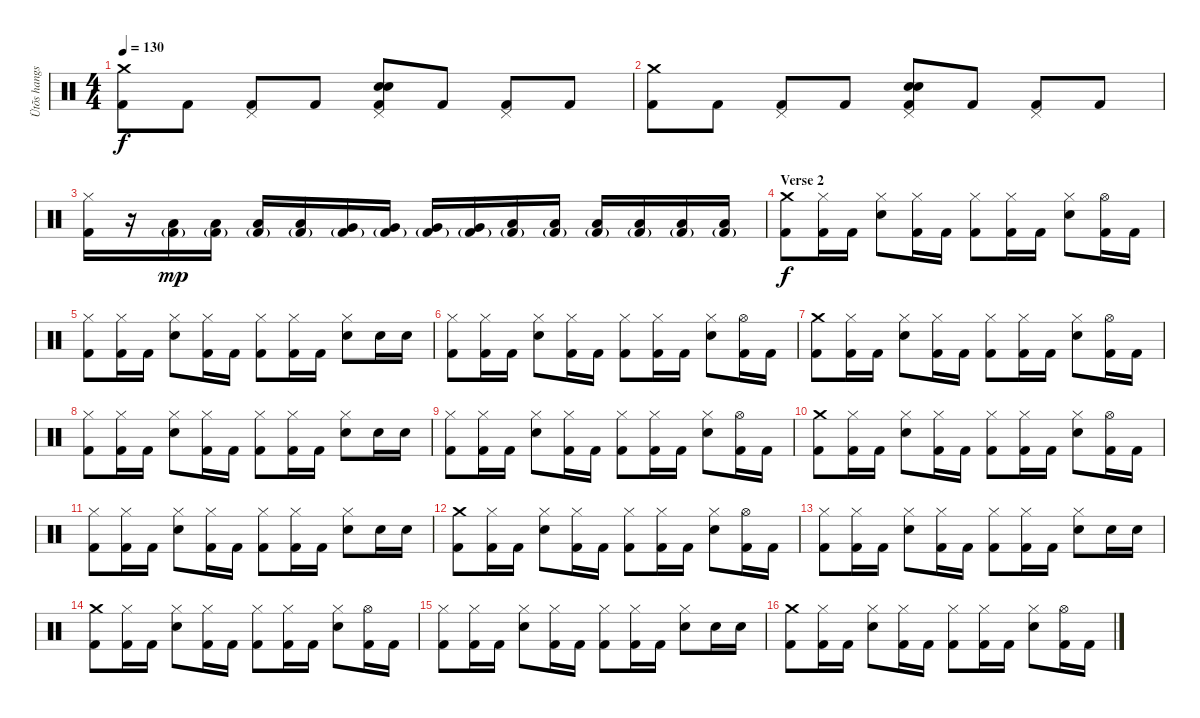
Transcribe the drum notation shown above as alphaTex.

\track ("Ütõs hangszer" "Ütõs hangs") {instrument percussion}
\staff {score}
\articulation defaults
\ts (4 4)
\tempo 130
\clef neutral
\ks c
("Crash medium (hit)" "Kick (hit) 2").8{dy f} "Kick (hit) 2".8 ("Pedal Hi-Hat (hit)" "Kick (hit) 2").8 "Kick (hit) 2".8 ("Pedal Hi-Hat (hit)" "Snare (hit) 2" "Electric Snare (hit)" "Kick (hit) 2").8 "Kick (hit) 2".8 ("Pedal Hi-Hat (hit)" "Kick (hit) 2").8 "Kick (hit) 2".8 |
("Crash medium (hit)" "Kick (hit) 2").8 "Kick (hit) 2".8 ("Pedal Hi-Hat (hit)" "Kick (hit) 2").8 "Kick (hit) 2".8 ("Pedal Hi-Hat (hit)" "Snare (hit) 2" "Electric Snare (hit)" "Kick (hit) 2").8 "Kick (hit) 2".8 ("Pedal Hi-Hat (hit)" "Kick (hit) 2").8 "Kick (hit) 2".8 |
("Hi-Hat (closed)" "Kick (hit) 2").16 r.16 ("Kick (hit) 2"{g} "Low Tom (hit)").16{dy mp} ("Kick (hit) 2"{g} "Low Tom (hit)").16 ("Kick (hit) 2"{g} "Low Tom (hit)").16 ("Kick (hit) 2"{g} "Low Tom (hit)").16 ("Kick (hit) 2"{g} "Very Low Tom (hit)").16 ("Kick (hit) 2"{g} "Very Low Tom (hit)").16 ("Kick (hit) 2"{g} "Very Low Tom (hit)").16 ("Kick (hit) 2"{g} "Very Low Tom (hit)").16 ("Kick (hit) 2"{g} "Low Floor Tom (hit)").16 ("Kick (hit) 2"{g} "Low Floor Tom (hit)").16 ("Kick (hit) 2"{g} "Low Floor Tom (hit)").16 ("Kick (hit) 2"{g} "Low Floor Tom (hit)").16 ("Kick (hit) 2"{g} "Low Floor Tom (hit)").16 ("Kick (hit) 2"{g} "Low Floor Tom (hit)").16 |
\section ("" "Verse 2")
("Crash medium (hit)" "Kick (hit) 2").8{dy f} ("Hi-Hat (closed)" "Kick (hit) 2").16 "Kick (hit) 2".16 ("Hi-Hat (closed)" "Snare (hit) 2").8 ("Hi-Hat (closed)" "Kick (hit) 2").16 "Kick (hit) 2".16 ("Hi-Hat (closed)" "Kick (hit) 2").8 ("Hi-Hat (closed)" "Kick (hit) 2").16 "Kick (hit) 2".16 ("Hi-Hat (closed)" "Snare (hit) 2").8 ("Hi-Hat (open)" "Kick (hit) 2").16 "Kick (hit) 2".16 |
("Hi-Hat (closed)" "Kick (hit) 2").8 ("Hi-Hat (closed)" "Kick (hit) 2").16 "Kick (hit) 2".16 ("Hi-Hat (closed)" "Snare (hit) 2").8 ("Hi-Hat (closed)" "Kick (hit) 2").16 "Kick (hit) 2".16 ("Hi-Hat (closed)" "Kick (hit) 2").8 ("Hi-Hat (closed)" "Kick (hit) 2").16 "Kick (hit) 2".16 ("Hi-Hat (closed)" "Snare (hit) 2").8 "Snare (hit) 2".16 "Snare (hit) 2".16 |
("Hi-Hat (closed)" "Kick (hit) 2").8 ("Hi-Hat (closed)" "Kick (hit) 2").16 "Kick (hit) 2".16 ("Hi-Hat (closed)" "Snare (hit) 2").8 ("Hi-Hat (closed)" "Kick (hit) 2").16 "Kick (hit) 2".16 ("Hi-Hat (closed)" "Kick (hit) 2").8 ("Hi-Hat (closed)" "Kick (hit) 2").16 "Kick (hit) 2".16 ("Hi-Hat (closed)" "Snare (hit) 2").8 ("Hi-Hat (open)" "Kick (hit) 2").16 "Kick (hit) 2".16 |
("Crash medium (hit)" "Kick (hit) 2").8 ("Hi-Hat (closed)" "Kick (hit) 2").16 "Kick (hit) 2".16 ("Hi-Hat (closed)" "Snare (hit) 2").8 ("Hi-Hat (closed)" "Kick (hit) 2").16 "Kick (hit) 2".16 ("Hi-Hat (closed)" "Kick (hit) 2").8 ("Hi-Hat (closed)" "Kick (hit) 2").16 "Kick (hit) 2".16 ("Hi-Hat (closed)" "Snare (hit) 2").8 ("Hi-Hat (open)" "Kick (hit) 2").16 "Kick (hit) 2".16 |
("Hi-Hat (closed)" "Kick (hit) 2").8 ("Hi-Hat (closed)" "Kick (hit) 2").16 "Kick (hit) 2".16 ("Hi-Hat (closed)" "Snare (hit) 2").8 ("Hi-Hat (closed)" "Kick (hit) 2").16 "Kick (hit) 2".16 ("Hi-Hat (closed)" "Kick (hit) 2").8 ("Hi-Hat (closed)" "Kick (hit) 2").16 "Kick (hit) 2".16 ("Hi-Hat (closed)" "Snare (hit) 2").8 "Snare (hit) 2".16 "Snare (hit) 2".16 |
("Hi-Hat (closed)" "Kick (hit) 2").8 ("Hi-Hat (closed)" "Kick (hit) 2").16 "Kick (hit) 2".16 ("Hi-Hat (closed)" "Snare (hit) 2").8 ("Hi-Hat (closed)" "Kick (hit) 2").16 "Kick (hit) 2".16 ("Hi-Hat (closed)" "Kick (hit) 2").8 ("Hi-Hat (closed)" "Kick (hit) 2").16 "Kick (hit) 2".16 ("Hi-Hat (closed)" "Snare (hit) 2").8 ("Hi-Hat (open)" "Kick (hit) 2").16 "Kick (hit) 2".16 |
("Crash medium (hit)" "Kick (hit) 2").8 ("Hi-Hat (closed)" "Kick (hit) 2").16 "Kick (hit) 2".16 ("Hi-Hat (closed)" "Snare (hit) 2").8 ("Hi-Hat (closed)" "Kick (hit) 2").16 "Kick (hit) 2".16 ("Hi-Hat (closed)" "Kick (hit) 2").8 ("Hi-Hat (closed)" "Kick (hit) 2").16 "Kick (hit) 2".16 ("Hi-Hat (closed)" "Snare (hit) 2").8 ("Hi-Hat (open)" "Kick (hit) 2").16 "Kick (hit) 2".16 |
("Hi-Hat (closed)" "Kick (hit) 2").8 ("Hi-Hat (closed)" "Kick (hit) 2").16 "Kick (hit) 2".16 ("Hi-Hat (closed)" "Snare (hit) 2").8 ("Hi-Hat (closed)" "Kick (hit) 2").16 "Kick (hit) 2".16 ("Hi-Hat (closed)" "Kick (hit) 2").8 ("Hi-Hat (closed)" "Kick (hit) 2").16 "Kick (hit) 2".16 ("Hi-Hat (closed)" "Snare (hit) 2").8 "Snare (hit) 2".16 "Snare (hit) 2".16 |
("Crash medium (hit)" "Kick (hit) 2").8 ("Hi-Hat (closed)" "Kick (hit) 2").16 "Kick (hit) 2".16 ("Hi-Hat (closed)" "Snare (hit) 2").8 ("Hi-Hat (closed)" "Kick (hit) 2").16 "Kick (hit) 2".16 ("Hi-Hat (closed)" "Kick (hit) 2").8 ("Hi-Hat (closed)" "Kick (hit) 2").16 "Kick (hit) 2".16 ("Hi-Hat (closed)" "Snare (hit) 2").8 ("Hi-Hat (open)" "Kick (hit) 2").16 "Kick (hit) 2".16 |
("Hi-Hat (closed)" "Kick (hit) 2").8 ("Hi-Hat (closed)" "Kick (hit) 2").16 "Kick (hit) 2".16 ("Hi-Hat (closed)" "Snare (hit) 2").8 ("Hi-Hat (closed)" "Kick (hit) 2").16 "Kick (hit) 2".16 ("Hi-Hat (closed)" "Kick (hit) 2").8 ("Hi-Hat (closed)" "Kick (hit) 2").16 "Kick (hit) 2".16 ("Hi-Hat (closed)" "Snare (hit) 2").8 "Snare (hit) 2".16 "Snare (hit) 2".16 |
("Crash medium (hit)" "Kick (hit) 2").8 ("Hi-Hat (closed)" "Kick (hit) 2").16 "Kick (hit) 2".16 ("Hi-Hat (closed)" "Snare (hit) 2").8 ("Hi-Hat (closed)" "Kick (hit) 2").16 "Kick (hit) 2".16 ("Hi-Hat (closed)" "Kick (hit) 2").8 ("Hi-Hat (closed)" "Kick (hit) 2").16 "Kick (hit) 2".16 ("Hi-Hat (closed)" "Snare (hit) 2").8 ("Hi-Hat (open)" "Kick (hit) 2").16 "Kick (hit) 2".16 |
("Hi-Hat (closed)" "Kick (hit) 2").8 ("Hi-Hat (closed)" "Kick (hit) 2").16 "Kick (hit) 2".16 ("Hi-Hat (closed)" "Snare (hit) 2").8 ("Hi-Hat (closed)" "Kick (hit) 2").16 "Kick (hit) 2".16 ("Hi-Hat (closed)" "Kick (hit) 2").8 ("Hi-Hat (closed)" "Kick (hit) 2").16 "Kick (hit) 2".16 ("Hi-Hat (closed)" "Snare (hit) 2").8 "Snare (hit) 2".16 "Snare (hit) 2".16 |
("Crash medium (hit)" "Kick (hit) 2").8 ("Hi-Hat (closed)" "Kick (hit) 2").16 "Kick (hit) 2".16 ("Hi-Hat (closed)" "Snare (hit) 2").8 ("Hi-Hat (closed)" "Kick (hit) 2").16 "Kick (hit) 2".16 ("Hi-Hat (closed)" "Kick (hit) 2").8 ("Hi-Hat (closed)" "Kick (hit) 2").16 "Kick (hit) 2".16 ("Hi-Hat (closed)" "Snare (hit) 2").8 ("Hi-Hat (open)" "Kick (hit) 2").16 "Kick (hit) 2".16
